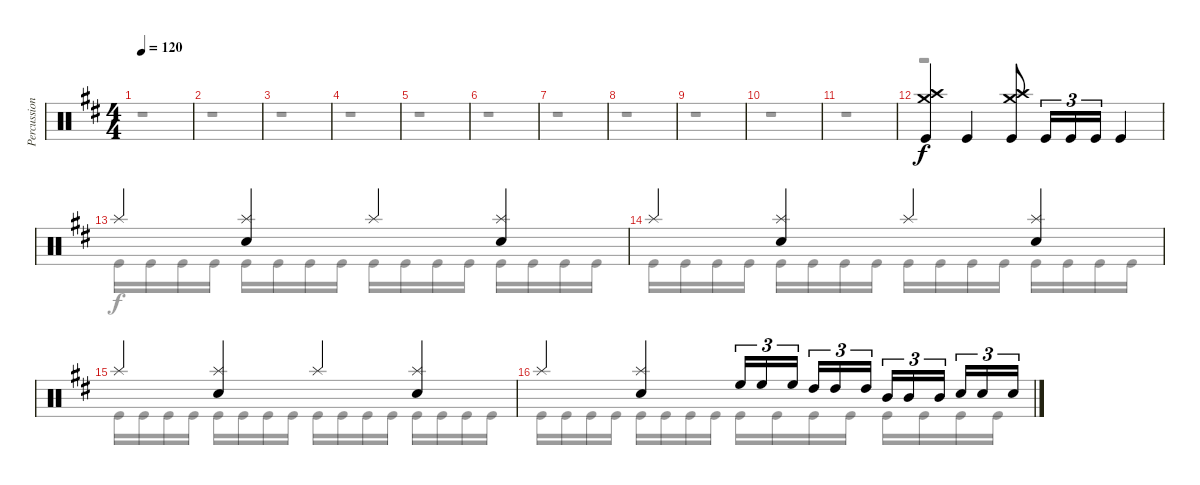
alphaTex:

\track ("Percussion" "Percussion") {instrument percussion}
\staff {score}
\articulation defaults
\voice
\ts (4 4)
\tempo 120
\clef neutral
\ks bminor
|
|
|
|
|
|
|
|
|
|
|
("Crash medium (hit)" "Crash high (hit)" "Kick (hit)").4 "Kick (hit)".4 ("Crash medium (hit)" "Crash high (hit)" "Kick (hit)").8 "Kick (hit)".16{tu (3 2)} "Kick (hit)".16{tu (3 2)} "Kick (hit)".16{tu (3 2)} "Kick (hit)".4 |
"Splash (hit)".4{dy f} ("Splash (hit)" "Snare (hit) 2").4 "Splash (hit)".4 ("Splash (hit)" "Snare (hit) 2").4 |
"Splash (hit)".4 ("Splash (hit)" "Snare (hit) 2").4 "Splash (hit)".4 ("Splash (hit)" "Snare (hit) 2").4 |
"Splash (hit)".4 ("Splash (hit)" "Snare (hit) 2").4 "Splash (hit)".4 ("Splash (hit)" "Snare (hit) 2").4 |
"Splash (hit)".4 ("Splash (hit)" "Snare (hit) 2").4 "High Floor Tom (hit)".16{tu (3 2)} "High Floor Tom (hit)".16{tu (3 2)} "High Floor Tom (hit)".16{tu (3 2) beam splitsecondary} "High Tom (hit)".16{tu (3 2)} "High Tom (hit)".16{tu (3 2)} "High Tom (hit)".16{tu (3 2)} "Mid Tom (hit)".16{tu (3 2)} "Mid Tom (hit)".16{tu (3 2)} "Mid Tom (hit)".16{tu (3 2) beam splitsecondary} "Snare (hit) 2".16{tu (3 2)} "Snare (hit) 2".16{tu (3 2)} "Snare (hit) 2".16{tu (3 2)}
\voice
\clef neutral
\ottava regular
\simile none
\ks bminor
r.1{dy f} |
r.1 |
r.1 |
r.1 |
r.1 |
r.1 |
r.1 |
r.1 |
r.1 |
r.1 |
r.1 |
r.1 |
"Kick (hit)".16 "Kick (hit)".16 "Kick (hit)".16 "Kick (hit)".16 "Kick (hit)".16 "Kick (hit)".16 "Kick (hit)".16 "Kick (hit)".16 "Kick (hit)".16 "Kick (hit)".16 "Kick (hit)".16 "Kick (hit)".16 "Kick (hit)".16 "Kick (hit)".16 "Kick (hit)".16 "Kick (hit)".16 |
"Kick (hit)".16 "Kick (hit)".16 "Kick (hit)".16 "Kick (hit)".16 "Kick (hit)".16 "Kick (hit)".16 "Kick (hit)".16 "Kick (hit)".16 "Kick (hit)".16 "Kick (hit)".16 "Kick (hit)".16 "Kick (hit)".16 "Kick (hit)".16 "Kick (hit)".16 "Kick (hit)".16 "Kick (hit)".16 |
"Kick (hit)".16 "Kick (hit)".16 "Kick (hit)".16 "Kick (hit)".16 "Kick (hit)".16 "Kick (hit)".16 "Kick (hit)".16 "Kick (hit)".16 "Kick (hit)".16 "Kick (hit)".16 "Kick (hit)".16 "Kick (hit)".16 "Kick (hit)".16 "Kick (hit)".16 "Kick (hit)".16 "Kick (hit)".16 |
"Kick (hit)".16 "Kick (hit)".16 "Kick (hit)".16 "Kick (hit)".16 "Kick (hit)".16 "Kick (hit)".16 "Kick (hit)".16 "Kick (hit)".16 "Kick (hit)".16 "Kick (hit)".16 "Kick (hit)".16 "Kick (hit)".16 "Kick (hit)".16 "Kick (hit)".16 "Kick (hit)".16 "Kick (hit)".16
